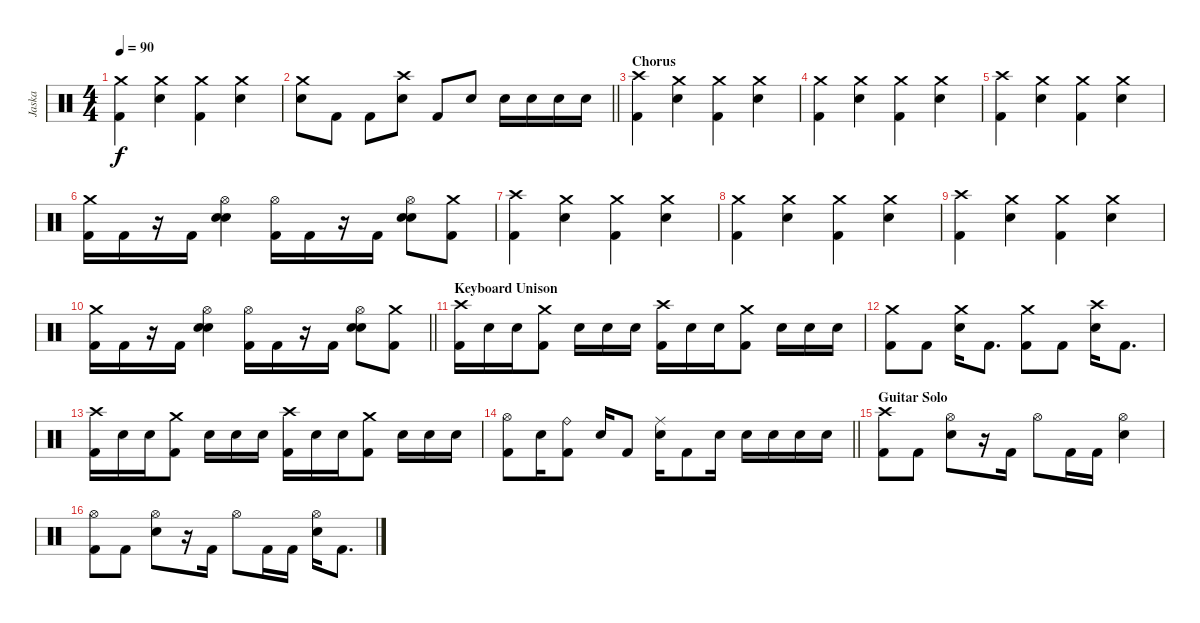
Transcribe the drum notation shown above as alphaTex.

\track ("Jaska" "Jaska") {instrument percussion}
\staff {score}
\articulation defaults
\ts (4 4)
\tempo 90
\clef neutral
\ks c
("Crash medium (hit)" "Kick (hit) 2").4{dy f} ("Crash medium (hit)" "Snare (hit) 2").4 ("Crash medium (hit)" "Kick (hit) 2").4 ("Crash medium (hit)" "Snare (hit) 2").4 |
\barLineRight lightlight
("Crash medium (hit)" "Snare (hit) 2").8 "Kick (hit) 2".8 "Kick (hit) 2".8 ("Crash high (hit)" "Snare (hit) 2").8 "Kick (hit) 2".8 "Snare (hit) 2".8 "Snare (hit) 2".16 "Snare (hit) 2".16 "Snare (hit) 2".16 "Snare (hit) 2".16 |
\section ("" "Chorus")
("Crash high (hit)" "Kick (hit) 2").4 ("Crash medium (hit)" "Snare (hit) 2").4 ("Crash medium (hit)" "Kick (hit) 2").4 ("Crash medium (hit)" "Snare (hit) 2").4 |
("Crash medium (hit)" "Kick (hit) 2").4 ("Crash medium (hit)" "Snare (hit) 2").4 ("Crash medium (hit)" "Kick (hit) 2").4 ("Crash medium (hit)" "Snare (hit) 2").4 |
("Crash high (hit)" "Kick (hit) 2").4 ("Crash medium (hit)" "Snare (hit) 2").4 ("Crash medium (hit)" "Kick (hit) 2").4 ("Crash medium (hit)" "Snare (hit) 2").4 |
("Crash medium (hit)" "Kick (hit) 2").16 "Kick (hit) 2".16 r.16 "Kick (hit) 2".16 ("Hi-Hat (open)" "Snare (hit) 2" "Snare (hit) 2").4 ("Hi-Hat (open)" "Kick (hit) 2").16 "Kick (hit) 2".16 r.16 "Kick (hit) 2".16 ("Hi-Hat (open)" "Snare (hit) 2" "Snare (hit) 2").8 ("Crash medium (hit)" "Kick (hit) 2").8 |
("Crash high (hit)" "Kick (hit) 2").4 ("Crash medium (hit)" "Snare (hit) 2").4 ("Crash medium (hit)" "Kick (hit) 2").4 ("Crash medium (hit)" "Snare (hit) 2").4 |
("Crash medium (hit)" "Kick (hit) 2").4 ("Crash medium (hit)" "Snare (hit) 2").4 ("Crash medium (hit)" "Kick (hit) 2").4 ("Crash medium (hit)" "Snare (hit) 2").4 |
("Crash high (hit)" "Kick (hit) 2").4 ("Crash medium (hit)" "Snare (hit) 2").4 ("Crash medium (hit)" "Kick (hit) 2").4 ("Crash medium (hit)" "Snare (hit) 2").4 |
\barLineRight lightlight
("Crash medium (hit)" "Kick (hit) 2").16 "Kick (hit) 2".16 r.16 "Kick (hit) 2".16 ("Hi-Hat (open)" "Snare (hit) 2" "Snare (hit) 2").4 ("Hi-Hat (open)" "Kick (hit) 2").16 "Kick (hit) 2".16 r.16 "Kick (hit) 2".16 ("Hi-Hat (open)" "Snare (hit) 2" "Snare (hit) 2").8 ("Crash medium (hit)" "Kick (hit) 2").8 |
\section ("" "Keyboard Unison")
("Crash high (hit)" "Kick (hit) 2").16 "Snare (hit) 2".16 "Snare (hit) 2".16 ("Crash medium (hit)" "Kick (hit) 2").8 "Snare (hit) 2".16 "Snare (hit) 2".16 "Snare (hit) 2".16 ("Crash high (hit)" "Kick (hit) 2").16 "Snare (hit) 2".16 "Snare (hit) 2".16 ("Crash medium (hit)" "Kick (hit) 2").8 "Snare (hit) 2".16 "Snare (hit) 2".16 "Snare (hit) 2".16 |
("Crash medium (hit)" "Kick (hit) 2").8 "Kick (hit) 2".8 ("Crash medium (hit)" "Snare (hit) 2").16 "Kick (hit) 2".8{d} ("Crash medium (hit)" "Kick (hit) 2").8 "Kick (hit) 2".8 ("Crash high (hit)" "Snare (hit) 2").16 "Kick (hit) 2".8{d} |
("Crash high (hit)" "Kick (hit) 2").16 "Snare (hit) 2".16 "Snare (hit) 2".16 ("Crash medium (hit)" "Kick (hit) 2").8 "Snare (hit) 2".16 "Snare (hit) 2".16 "Snare (hit) 2".16 ("Crash high (hit)" "Kick (hit) 2").16 "Snare (hit) 2".16 "Snare (hit) 2".16 ("Crash medium (hit)" "Kick (hit) 2").8 "Snare (hit) 2".16 "Snare (hit) 2".16 "Snare (hit) 2".16 |
\barLineRight lightlight
("Hi-Hat (open)" "Kick (hit) 2").8 "Snare (hit) 2".16 ("Ride (bell)" "Kick (hit) 2").8 "Snare (hit) 2".16 "Kick (hit) 2".8 ("Ride (middle)" "Snare (hit) 2").16 "Kick (hit) 2".8 "Snare (hit) 2".16 "Snare (hit) 2".16 "Snare (hit) 2".16 "Snare (hit) 2".16 "Snare (hit) 2".16 |
\section ("" "Guitar Solo")
("Crash high (hit)" "Kick (hit) 2").8 "Kick (hit) 2".8 ("Hi-Hat (open)" "Snare (hit) 2").8 r.16 "Kick (hit) 2".16 "Hi-Hat (open)".8 "Kick (hit) 2".16 "Kick (hit) 2".16 ("Hi-Hat (open)" "Snare (hit) 2").4 |
("Hi-Hat (open)" "Kick (hit) 2").8 "Kick (hit) 2".8 ("Hi-Hat (open)" "Snare (hit) 2").8 r.16 "Kick (hit) 2".16 "Hi-Hat (open)".8 "Kick (hit) 2".16 "Kick (hit) 2".16 ("Hi-Hat (open)" "Snare (hit) 2").16 "Kick (hit) 2".8{d}
